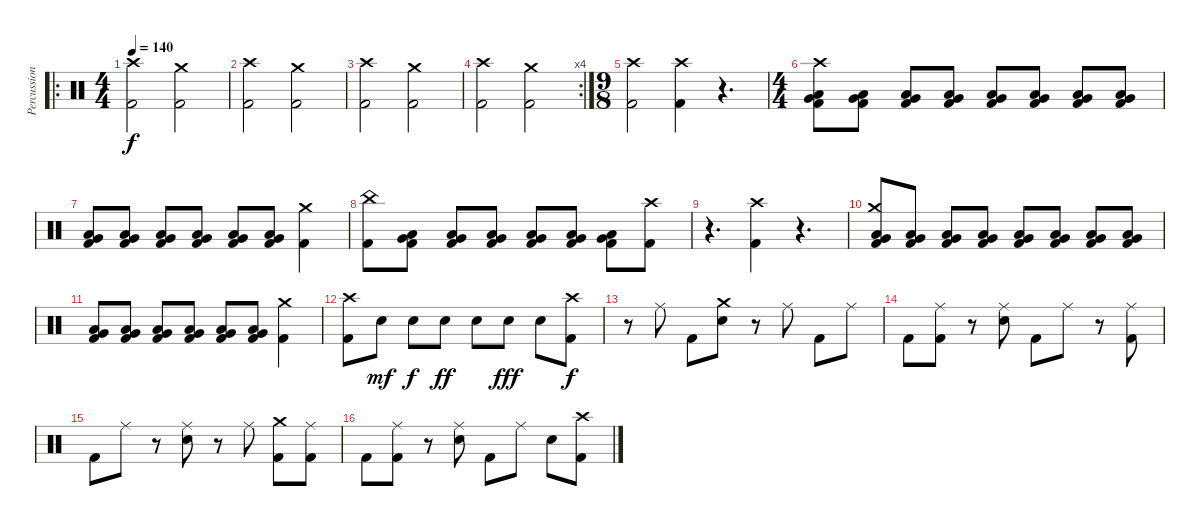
\track ("Percussion" "Percussion") {instrument percussion}
\staff {score}
\articulation defaults
\ro
\ts (4 4)
\tempo 140
\clef neutral
\ks c
("Crash high (hit)" "Kick (hit) 2").2{dy f volume 11} ("Crash medium (hit)" "Kick (hit) 2").2 |
("Crash high (hit)" "Kick (hit) 2").2 ("Crash medium (hit)" "Kick (hit) 2").2 |
("Crash high (hit)" "Kick (hit) 2").2 ("Crash medium (hit)" "Kick (hit) 2").2 |
\rc 4
("Crash high (hit)" "Kick (hit) 2").2 ("Crash medium (hit)" "Kick (hit) 2").2 |
\ts (9 8)
("Crash high (hit)" "Kick (hit) 2").2{volume 13} ("Crash high (hit)" "Kick (hit) 2").4 r.4{d} |
\ts (4 4)
("Crash high (hit)" "Low Floor Tom (hit)" "Very Low Tom (hit)" "Kick (hit) 2").8 ("Low Floor Tom (hit)" "Very Low Tom (hit)" "Kick (hit) 2").8 ("Low Floor Tom (hit)" "Very Low Tom (hit)" "Kick (hit) 2").8 ("Low Floor Tom (hit)" "Very Low Tom (hit)" "Kick (hit) 2").8 ("Low Floor Tom (hit)" "Very Low Tom (hit)" "Kick (hit) 2").8 ("Low Floor Tom (hit)" "Very Low Tom (hit)" "Kick (hit) 2").8 ("Low Floor Tom (hit)" "Very Low Tom (hit)" "Kick (hit) 2").8 ("Low Floor Tom (hit)" "Very Low Tom (hit)" "Kick (hit) 2").8 |
("Low Floor Tom (hit)" "Very Low Tom (hit)" "Kick (hit) 2").8 ("Low Floor Tom (hit)" "Very Low Tom (hit)" "Kick (hit) 2").8 ("Low Floor Tom (hit)" "Very Low Tom (hit)" "Kick (hit) 2").8 ("Low Floor Tom (hit)" "Very Low Tom (hit)" "Kick (hit) 2").8 ("Low Floor Tom (hit)" "Very Low Tom (hit)" "Kick (hit) 2").8 ("Low Floor Tom (hit)" "Very Low Tom (hit)" "Kick (hit) 2").8 ("Crash medium (hit)" "Kick (hit) 2").4 |
("China (hit)" "Kick (hit) 2").8 ("Low Floor Tom (hit)" "Very Low Tom (hit)" "Kick (hit) 2").8 ("Low Floor Tom (hit)" "Very Low Tom (hit)" "Kick (hit) 2").8 ("Low Floor Tom (hit)" "Very Low Tom (hit)" "Kick (hit) 2").8 ("Low Floor Tom (hit)" "Very Low Tom (hit)" "Kick (hit) 2").8 ("Low Floor Tom (hit)" "Very Low Tom (hit)" "Kick (hit) 2").8 ("Low Floor Tom (hit)" "Very Low Tom (hit)" "Kick (hit) 2").8 ("Crash high (hit)" "Kick (hit) 2").8 |
r.4{d} ("Crash high (hit)" "Kick (hit) 2").4 r.4{d} |
("Crash medium (hit)" "Low Floor Tom (hit)" "Very Low Tom (hit)" "Kick (hit) 2").8 ("Low Floor Tom (hit)" "Very Low Tom (hit)" "Kick (hit) 2").8 ("Low Floor Tom (hit)" "Very Low Tom (hit)" "Kick (hit) 2").8 ("Low Floor Tom (hit)" "Very Low Tom (hit)" "Kick (hit) 2").8 ("Low Floor Tom (hit)" "Very Low Tom (hit)" "Kick (hit) 2").8 ("Low Floor Tom (hit)" "Very Low Tom (hit)" "Kick (hit) 2").8 ("Low Floor Tom (hit)" "Very Low Tom (hit)" "Kick (hit) 2").8 ("Low Floor Tom (hit)" "Very Low Tom (hit)" "Kick (hit) 2").8 |
("Low Floor Tom (hit)" "Very Low Tom (hit)" "Kick (hit) 2").8 ("Low Floor Tom (hit)" "Very Low Tom (hit)" "Kick (hit) 2").8 ("Low Floor Tom (hit)" "Very Low Tom (hit)" "Kick (hit) 2").8 ("Low Floor Tom (hit)" "Very Low Tom (hit)" "Kick (hit) 2").8 ("Low Floor Tom (hit)" "Very Low Tom (hit)" "Kick (hit) 2").8 ("Low Floor Tom (hit)" "Very Low Tom (hit)" "Kick (hit) 2").8 ("Crash medium (hit)" "Kick (hit) 2").4 |
("Crash high (hit)" "Kick (hit) 2").8 "Snare (hit) 2".8{dy mf} "Snare (hit) 2".8{dy f} "Snare (hit) 2".8{dy ff} "Snare (hit) 2".8 "Snare (hit) 2".8{dy fff} "Snare (hit) 2".8 ("Crash high (hit)" "Kick (hit) 2").8{dy f} |
r.8 "Ride (middle)".8 "Kick (hit) 2".8 ("Crash medium (hit)" "Snare (hit) 2").8 r.8 "Ride (middle)".8 "Kick (hit) 2".8 "Ride (middle)".8 |
"Kick (hit) 2".8 ("Ride (middle)" "Kick (hit) 2").8 r.8 ("Ride (middle)" "Snare (hit) 2").8 "Kick (hit) 2".8 "Ride (middle)".8 r.8 ("Ride (middle)" "Kick (hit) 2").8 |
"Kick (hit) 2".8 "Ride (middle)".8 r.8 ("Ride (middle)" "Snare (hit) 2").8 r.8 "Ride (middle)".8 ("Crash medium (hit)" "Kick (hit) 2").8 ("Ride (middle)" "Kick (hit) 2").8 |
"Kick (hit) 2".8 ("Ride (middle)" "Kick (hit) 2").8 r.8 ("Ride (middle)" "Snare (hit) 2").8 "Kick (hit) 2".8 "Ride (middle)".8 "Snare (hit) 2".8 ("Crash high (hit)" "Kick (hit) 2").8
